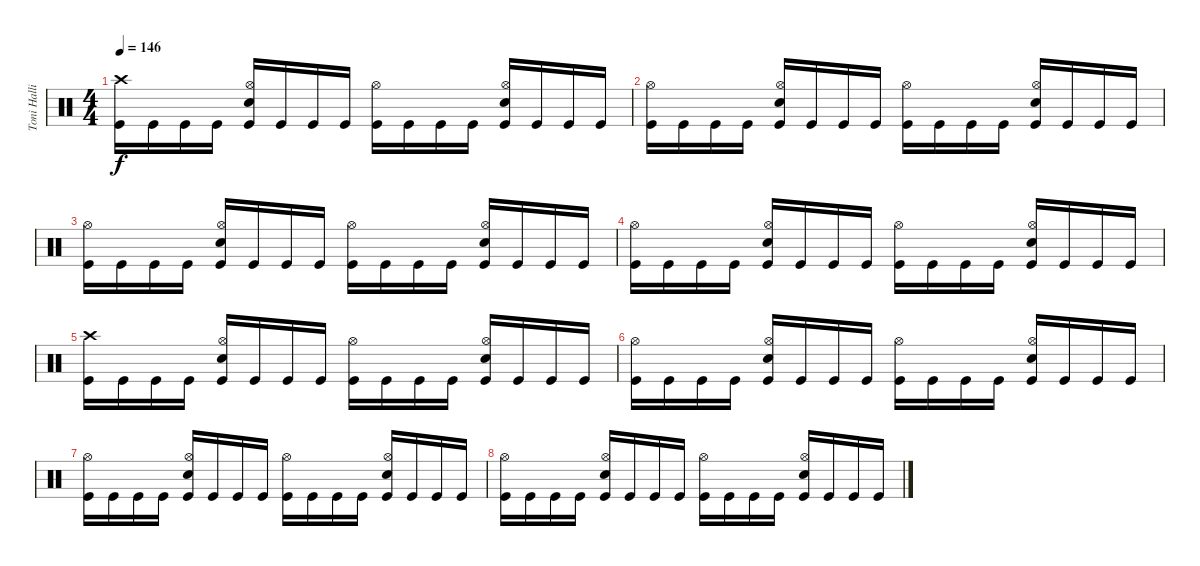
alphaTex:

\track ("Toni Hallio" "Toni Halli") {instrument percussion}
\staff {score}
\articulation defaults
\ts (4 4)
\tempo 146
\clef neutral
\ks c
("Crash high (hit)" "Kick (hit)").16{dy f} "Kick (hit)".16 "Kick (hit)".16 "Kick (hit)".16 ("Hi-Hat (open)" "Snare (hit) 2" "Kick (hit)").16 "Kick (hit)".16 "Kick (hit)".16 "Kick (hit)".16 ("Hi-Hat (open)" "Kick (hit)").16 "Kick (hit)".16 "Kick (hit)".16 "Kick (hit)".16 ("Hi-Hat (open)" "Snare (hit) 2" "Kick (hit)").16 "Kick (hit)".16 "Kick (hit)".16 "Kick (hit)".16 |
("Hi-Hat (open)" "Kick (hit)").16 "Kick (hit)".16 "Kick (hit)".16 "Kick (hit)".16 ("Hi-Hat (open)" "Snare (hit) 2" "Kick (hit)").16 "Kick (hit)".16 "Kick (hit)".16 "Kick (hit)".16 ("Hi-Hat (open)" "Kick (hit)").16 "Kick (hit)".16 "Kick (hit)".16 "Kick (hit)".16 ("Hi-Hat (open)" "Snare (hit) 2" "Kick (hit)").16 "Kick (hit)".16 "Kick (hit)".16 "Kick (hit)".16 |
("Hi-Hat (open)" "Kick (hit)").16 "Kick (hit)".16 "Kick (hit)".16 "Kick (hit)".16 ("Hi-Hat (open)" "Snare (hit) 2" "Kick (hit)").16 "Kick (hit)".16 "Kick (hit)".16 "Kick (hit)".16 ("Hi-Hat (open)" "Kick (hit)").16 "Kick (hit)".16 "Kick (hit)".16 "Kick (hit)".16 ("Hi-Hat (open)" "Snare (hit) 2" "Kick (hit)").16 "Kick (hit)".16 "Kick (hit)".16 "Kick (hit)".16 |
("Hi-Hat (open)" "Kick (hit)").16 "Kick (hit)".16 "Kick (hit)".16 "Kick (hit)".16 ("Hi-Hat (open)" "Snare (hit) 2" "Kick (hit)").16 "Kick (hit)".16 "Kick (hit)".16 "Kick (hit)".16 ("Hi-Hat (open)" "Kick (hit)").16 "Kick (hit)".16 "Kick (hit)".16 "Kick (hit)".16 ("Hi-Hat (open)" "Snare (hit) 2" "Kick (hit)").16 "Kick (hit)".16 "Kick (hit)".16 "Kick (hit)".16 |
("Crash high (hit)" "Kick (hit)").16 "Kick (hit)".16 "Kick (hit)".16 "Kick (hit)".16 ("Hi-Hat (open)" "Snare (hit) 2" "Kick (hit)").16 "Kick (hit)".16 "Kick (hit)".16 "Kick (hit)".16 ("Hi-Hat (open)" "Kick (hit)").16 "Kick (hit)".16 "Kick (hit)".16 "Kick (hit)".16 ("Hi-Hat (open)" "Snare (hit) 2" "Kick (hit)").16 "Kick (hit)".16 "Kick (hit)".16 "Kick (hit)".16 |
("Hi-Hat (open)" "Kick (hit)").16 "Kick (hit)".16 "Kick (hit)".16 "Kick (hit)".16 ("Hi-Hat (open)" "Snare (hit) 2" "Kick (hit)").16 "Kick (hit)".16 "Kick (hit)".16 "Kick (hit)".16 ("Hi-Hat (open)" "Kick (hit)").16 "Kick (hit)".16 "Kick (hit)".16 "Kick (hit)".16 ("Hi-Hat (open)" "Snare (hit) 2" "Kick (hit)").16 "Kick (hit)".16 "Kick (hit)".16 "Kick (hit)".16 |
("Hi-Hat (open)" "Kick (hit)").16 "Kick (hit)".16 "Kick (hit)".16 "Kick (hit)".16 ("Hi-Hat (open)" "Snare (hit) 2" "Kick (hit)").16 "Kick (hit)".16 "Kick (hit)".16 "Kick (hit)".16 ("Hi-Hat (open)" "Kick (hit)").16 "Kick (hit)".16 "Kick (hit)".16 "Kick (hit)".16 ("Hi-Hat (open)" "Snare (hit) 2" "Kick (hit)").16 "Kick (hit)".16 "Kick (hit)".16 "Kick (hit)".16 |
("Hi-Hat (open)" "Kick (hit)").16 "Kick (hit)".16 "Kick (hit)".16 "Kick (hit)".16 ("Hi-Hat (open)" "Snare (hit) 2" "Kick (hit)").16 "Kick (hit)".16 "Kick (hit)".16 "Kick (hit)".16 ("Hi-Hat (open)" "Kick (hit)").16 "Kick (hit)".16 "Kick (hit)".16 "Kick (hit)".16 ("Hi-Hat (open)" "Snare (hit) 2" "Kick (hit)").16 "Kick (hit)".16 "Kick (hit)".16 "Kick (hit)".16
